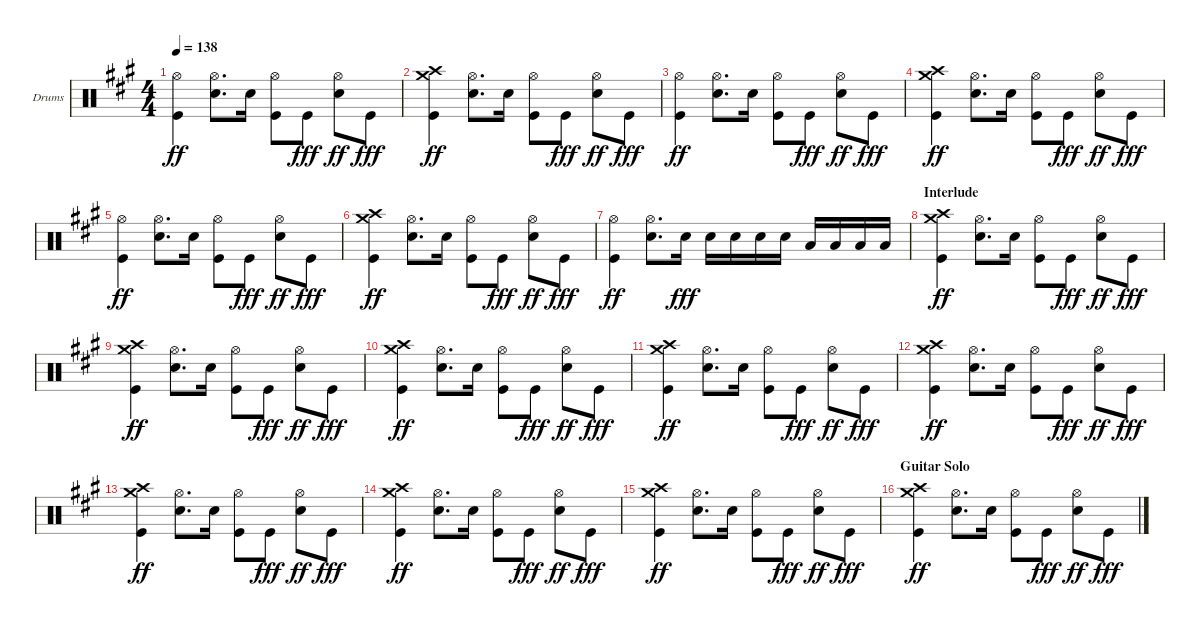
\defaultSystemsLayout 4
\bracketExtendMode groupsimilarinstruments
\firstSystemTrackNameOrientation horizontal
\otherSystemsTrackNameOrientation horizontal
\track ("Drumkit" "Drums") {instrument percussion}
\staff {score}
\articulation defaults
\ts (4 4)
\tempo 138
\clef neutral
\scale
0.941992
\ks a
("Hi-Hat (open)" "Kick (hit)").4{dy ff} ("Hi-Hat (open)" "Snare (hit) 2").8{d} "Snare (hit) 2".16 ("Hi-Hat (open)" "Kick (hit)").8 "Kick (hit)".8{dy fff} ("Hi-Hat (open)" "Snare (hit) 2").8{dy ff} "Kick (hit)".8{dy fff} |
\scale
1.05801 ("Crash high (hit)" "Crash medium (hit)" "Kick (hit)").4{dy ff} ("Hi-Hat (open)" "Snare (hit) 2").8{d} "Snare (hit) 2".16 ("Hi-Hat (open)" "Kick (hit)").8 "Kick (hit)".8{dy fff} ("Hi-Hat (open)" "Snare (hit) 2").8{dy ff} "Kick (hit)".8{dy fff} |
\scale
0.941992 ("Hi-Hat (open)" "Kick (hit)").4{dy ff} ("Hi-Hat (open)" "Snare (hit) 2").8{d} "Snare (hit) 2".16 ("Hi-Hat (open)" "Kick (hit)").8 "Kick (hit)".8{dy fff} ("Hi-Hat (open)" "Snare (hit) 2").8{dy ff} "Kick (hit)".8{dy fff} |
\scale
1.05801 ("Crash high (hit)" "Crash medium (hit)" "Kick (hit)").4{dy ff} ("Hi-Hat (open)" "Snare (hit) 2").8{d} "Snare (hit) 2".16 ("Hi-Hat (open)" "Kick (hit)").8 "Kick (hit)".8{dy fff} ("Hi-Hat (open)" "Snare (hit) 2").8{dy ff} "Kick (hit)".8{dy fff} |
\scale
0.941992 ("Hi-Hat (open)" "Kick (hit)").4{dy ff} ("Hi-Hat (open)" "Snare (hit) 2").8{d} "Snare (hit) 2".16 ("Hi-Hat (open)" "Kick (hit)").8 "Kick (hit)".8{dy fff} ("Hi-Hat (open)" "Snare (hit) 2").8{dy ff} "Kick (hit)".8{dy fff} |
\scale
1.05801 ("Crash high (hit)" "Crash medium (hit)" "Kick (hit)").4{dy ff} ("Hi-Hat (open)" "Snare (hit) 2").8{d} "Snare (hit) 2".16 ("Hi-Hat (open)" "Kick (hit)").8 "Kick (hit)".8{dy fff} ("Hi-Hat (open)" "Snare (hit) 2").8{dy ff} "Kick (hit)".8{dy fff} |
\scale
0.941992 ("Hi-Hat (open)" "Kick (hit)").4{dy ff} ("Hi-Hat (open)" "Snare (hit) 2").8{d} "Snare (hit) 2".16{dy fff} "Snare (hit) 2".16 "Snare (hit) 2".16 "Snare (hit) 2".16 "Snare (hit) 2".16 "Low Tom (hit)".16 "Low Tom (hit)".16 "Low Tom (hit)".16 "Low Tom (hit)".16 |
\section ("" "Interlude")
\scale
1.05801 ("Crash medium (hit)" "Crash high (hit)" "Kick (hit)").4{dy ff} ("Hi-Hat (open)" "Snare (hit) 2").8{d} "Snare (hit) 2".16 ("Hi-Hat (open)" "Kick (hit)").8 "Kick (hit)".8{dy fff} ("Hi-Hat (open)" "Snare (hit) 2").8{dy ff} "Kick (hit)".8{dy fff} |
\scale
0.941992 ("Crash medium (hit)" "Crash high (hit)" "Kick (hit)").4{dy ff} ("Hi-Hat (open)" "Snare (hit) 2").8{d} "Snare (hit) 2".16 ("Hi-Hat (open)" "Kick (hit)").8 "Kick (hit)".8{dy fff} ("Hi-Hat (open)" "Snare (hit) 2").8{dy ff} "Kick (hit)".8{dy fff} |
\scale
1.05801 ("Crash medium (hit)" "Crash high (hit)" "Kick (hit)").4{dy ff} ("Hi-Hat (open)" "Snare (hit) 2").8{d} "Snare (hit) 2".16 ("Hi-Hat (open)" "Kick (hit)").8 "Kick (hit)".8{dy fff} ("Hi-Hat (open)" "Snare (hit) 2").8{dy ff} "Kick (hit)".8{dy fff} |
\scale
0.941992 ("Crash medium (hit)" "Crash high (hit)" "Kick (hit)").4{dy ff} ("Hi-Hat (open)" "Snare (hit) 2").8{d} "Snare (hit) 2".16 ("Hi-Hat (open)" "Kick (hit)").8 "Kick (hit)".8{dy fff} ("Hi-Hat (open)" "Snare (hit) 2").8{dy ff} "Kick (hit)".8{dy fff} |
\scale
1.05801 ("Crash high (hit)" "Crash medium (hit)" "Kick (hit)").4{dy ff} ("Hi-Hat (open)" "Snare (hit) 2").8{d} "Snare (hit) 2".16 ("Hi-Hat (open)" "Kick (hit)").8 "Kick (hit)".8{dy fff} ("Hi-Hat (open)" "Snare (hit) 2").8{dy ff} "Kick (hit)".8{dy fff} |
\scale
0.941992 ("Crash high (hit)" "Crash medium (hit)" "Kick (hit)").4{dy ff} ("Hi-Hat (open)" "Snare (hit) 2").8{d} "Snare (hit) 2".16 ("Hi-Hat (open)" "Kick (hit)").8 "Kick (hit)".8{dy fff} ("Hi-Hat (open)" "Snare (hit) 2").8{dy ff} "Kick (hit)".8{dy fff} |
\scale
1.05801 ("Crash high (hit)" "Crash medium (hit)" "Kick (hit)").4{dy ff} ("Hi-Hat (open)" "Snare (hit) 2").8{d} "Snare (hit) 2".16 ("Hi-Hat (open)" "Kick (hit)").8 "Kick (hit)".8{dy fff} ("Hi-Hat (open)" "Snare (hit) 2").8{dy ff} "Kick (hit)".8{dy fff} |
\scale
0.941992 ("Crash high (hit)" "Crash medium (hit)" "Kick (hit)").4{dy ff} ("Hi-Hat (open)" "Snare (hit) 2").8{d} "Snare (hit) 2".16 ("Hi-Hat (open)" "Kick (hit)").8 "Kick (hit)".8{dy fff} ("Hi-Hat (open)" "Snare (hit) 2").8{dy ff} "Kick (hit)".8{dy fff} |
\section ("" "Guitar Solo")
\scale
1.05801 ("Crash high (hit)" "Crash medium (hit)" "Kick (hit)").4{dy ff} ("Hi-Hat (open)" "Snare (hit) 2").8{d} "Snare (hit) 2".16 ("Hi-Hat (open)" "Kick (hit)").8 "Kick (hit)".8{dy fff} ("Hi-Hat (open)" "Snare (hit) 2").8{dy ff} "Kick (hit)".8{dy fff}
